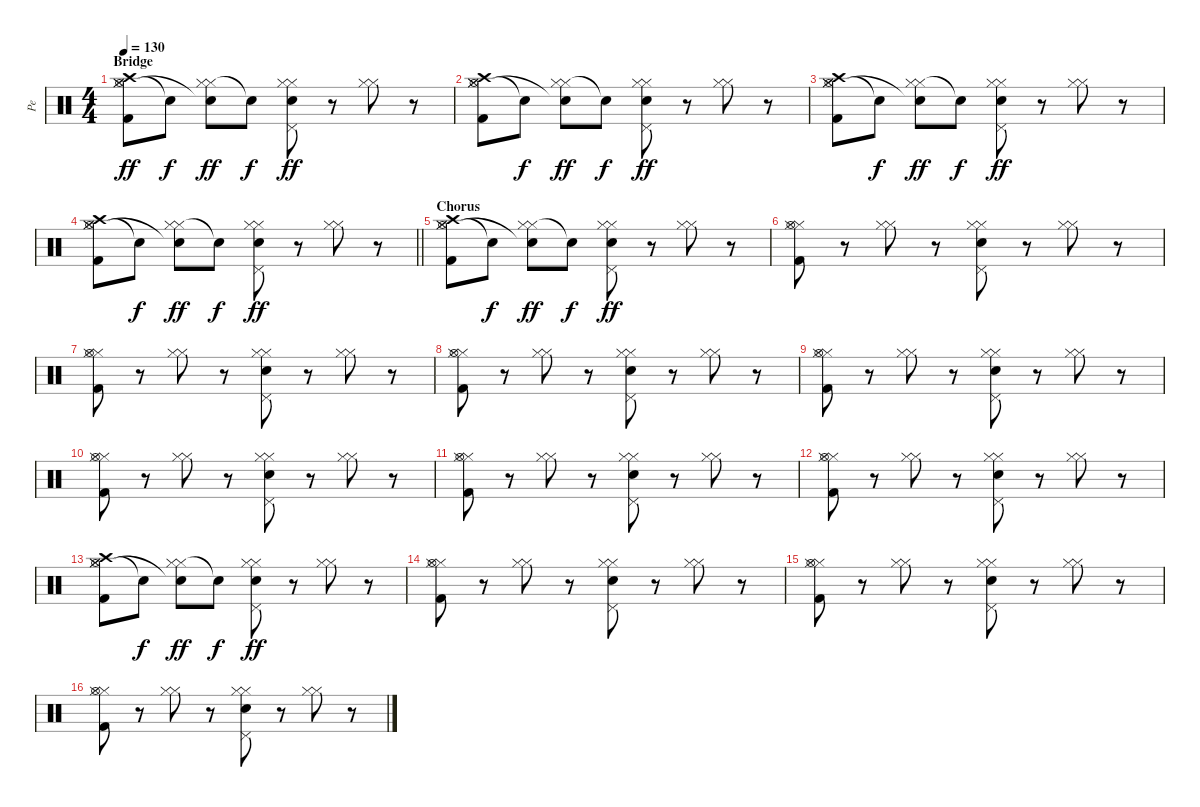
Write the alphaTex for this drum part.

\track ("Pe" "Pe") {instrument percussion}
\staff {score}
\articulation defaults
\ts (4 4)
\section ("" "Bridge")
\tempo 130
\clef neutral
\ks c
("Hi-Hat (closed)" "Hi-Hat (closed)" "Hi-Hat (open)" "Crash high (hit)" "Kick (hit) 2").8{dy ff} "Snare (hit)"{t}.8{dy f} ("Hi-Hat (closed)" "Hi-Hat (closed)" "Snare (hit)"{t}).8{dy ff} "Snare (hit)"{t}.8{dy f} ("Hi-Hat (closed)" "Hi-Hat (closed)" "Pedal Hi-Hat (hit)" "Electric Snare (hit)").8{dy ff} r.8 ("Hi-Hat (closed)" "Hi-Hat (closed)").8 r.8 |
("Hi-Hat (closed)" "Hi-Hat (closed)" "Hi-Hat (open)" "Crash high (hit)" "Kick (hit) 2").8 "Snare (hit)"{t}.8{dy f} ("Hi-Hat (closed)" "Hi-Hat (closed)" "Snare (hit)"{t}).8{dy ff} "Snare (hit)"{t}.8{dy f} ("Hi-Hat (closed)" "Hi-Hat (closed)" "Pedal Hi-Hat (hit)" "Electric Snare (hit)").8{dy ff} r.8 ("Hi-Hat (closed)" "Hi-Hat (closed)").8 r.8 |
("Hi-Hat (closed)" "Hi-Hat (closed)" "Hi-Hat (open)" "Crash high (hit)" "Kick (hit) 2").8 "Snare (hit)"{t}.8{dy f} ("Hi-Hat (closed)" "Hi-Hat (closed)" "Snare (hit)"{t}).8{dy ff} "Snare (hit)"{t}.8{dy f} ("Hi-Hat (closed)" "Hi-Hat (closed)" "Pedal Hi-Hat (hit)" "Electric Snare (hit)").8{dy ff} r.8 ("Hi-Hat (closed)" "Hi-Hat (closed)").8 r.8 |
\barLineRight lightlight
("Hi-Hat (closed)" "Hi-Hat (closed)" "Hi-Hat (open)" "Crash high (hit)" "Kick (hit) 2").8 "Snare (hit)"{t}.8{dy f} ("Hi-Hat (closed)" "Hi-Hat (closed)" "Snare (hit)"{t}).8{dy ff} "Snare (hit)"{t}.8{dy f} ("Hi-Hat (closed)" "Hi-Hat (closed)" "Pedal Hi-Hat (hit)" "Electric Snare (hit)").8{dy ff} r.8 ("Hi-Hat (closed)" "Hi-Hat (closed)").8 r.8 |
\section ("" "Chorus")
("Hi-Hat (closed)" "Hi-Hat (closed)" "Hi-Hat (open)" "Crash high (hit)" "Kick (hit) 2").8 "Snare (hit)"{t}.8{dy f} ("Hi-Hat (closed)" "Hi-Hat (closed)" "Snare (hit)"{t}).8{dy ff} "Snare (hit)"{t}.8{dy f} ("Hi-Hat (closed)" "Hi-Hat (closed)" "Pedal Hi-Hat (hit)" "Electric Snare (hit)").8{dy ff} r.8 ("Hi-Hat (closed)" "Hi-Hat (closed)").8 r.8 |
("Hi-Hat (closed)" "Hi-Hat (closed)" "Hi-Hat (open)" "Kick (hit) 2").8 r.8 ("Hi-Hat (closed)" "Hi-Hat (closed)").8 r.8 ("Hi-Hat (closed)" "Hi-Hat (closed)" "Pedal Hi-Hat (hit)" "Electric Snare (hit)").8 r.8 ("Hi-Hat (closed)" "Hi-Hat (closed)").8 r.8 |
("Hi-Hat (closed)" "Hi-Hat (closed)" "Hi-Hat (open)" "Kick (hit) 2").8 r.8 ("Hi-Hat (closed)" "Hi-Hat (closed)").8 r.8 ("Hi-Hat (closed)" "Hi-Hat (closed)" "Pedal Hi-Hat (hit)" "Electric Snare (hit)").8 r.8 ("Hi-Hat (closed)" "Hi-Hat (closed)").8 r.8 |
("Hi-Hat (closed)" "Hi-Hat (closed)" "Hi-Hat (open)" "Kick (hit) 2").8 r.8 ("Hi-Hat (closed)" "Hi-Hat (closed)").8 r.8 ("Hi-Hat (closed)" "Hi-Hat (closed)" "Pedal Hi-Hat (hit)" "Electric Snare (hit)").8 r.8 ("Hi-Hat (closed)" "Hi-Hat (closed)").8 r.8 |
("Hi-Hat (closed)" "Hi-Hat (closed)" "Hi-Hat (open)" "Kick (hit) 2").8 r.8 ("Hi-Hat (closed)" "Hi-Hat (closed)").8 r.8 ("Hi-Hat (closed)" "Hi-Hat (closed)" "Pedal Hi-Hat (hit)" "Electric Snare (hit)").8 r.8 ("Hi-Hat (closed)" "Hi-Hat (closed)").8 r.8 |
("Hi-Hat (closed)" "Hi-Hat (closed)" "Hi-Hat (open)" "Kick (hit) 2").8 r.8 ("Hi-Hat (closed)" "Hi-Hat (closed)").8 r.8 ("Hi-Hat (closed)" "Hi-Hat (closed)" "Pedal Hi-Hat (hit)" "Electric Snare (hit)").8 r.8 ("Hi-Hat (closed)" "Hi-Hat (closed)").8 r.8 |
("Hi-Hat (closed)" "Hi-Hat (closed)" "Hi-Hat (open)" "Kick (hit) 2").8 r.8 ("Hi-Hat (closed)" "Hi-Hat (closed)").8 r.8 ("Hi-Hat (closed)" "Hi-Hat (closed)" "Pedal Hi-Hat (hit)" "Electric Snare (hit)").8 r.8 ("Hi-Hat (closed)" "Hi-Hat (closed)").8 r.8 |
("Hi-Hat (closed)" "Hi-Hat (closed)" "Hi-Hat (open)" "Kick (hit) 2").8 r.8 ("Hi-Hat (closed)" "Hi-Hat (closed)").8 r.8 ("Hi-Hat (closed)" "Hi-Hat (closed)" "Pedal Hi-Hat (hit)" "Electric Snare (hit)").8 r.8 ("Hi-Hat (closed)" "Hi-Hat (closed)").8 r.8 |
("Hi-Hat (closed)" "Hi-Hat (closed)" "Hi-Hat (open)" "Crash high (hit)" "Kick (hit) 2").8 "Snare (hit)"{t}.8{dy f} ("Hi-Hat (closed)" "Hi-Hat (closed)" "Snare (hit)"{t}).8{dy ff} "Snare (hit)"{t}.8{dy f} ("Hi-Hat (closed)" "Hi-Hat (closed)" "Pedal Hi-Hat (hit)" "Electric Snare (hit)").8{dy ff} r.8 ("Hi-Hat (closed)" "Hi-Hat (closed)").8 r.8 |
("Hi-Hat (closed)" "Hi-Hat (closed)" "Hi-Hat (open)" "Kick (hit) 2").8 r.8 ("Hi-Hat (closed)" "Hi-Hat (closed)").8 r.8 ("Hi-Hat (closed)" "Hi-Hat (closed)" "Pedal Hi-Hat (hit)" "Electric Snare (hit)").8 r.8 ("Hi-Hat (closed)" "Hi-Hat (closed)").8 r.8 |
("Hi-Hat (closed)" "Hi-Hat (closed)" "Hi-Hat (open)" "Kick (hit) 2").8 r.8 ("Hi-Hat (closed)" "Hi-Hat (closed)").8 r.8 ("Hi-Hat (closed)" "Hi-Hat (closed)" "Pedal Hi-Hat (hit)" "Electric Snare (hit)").8 r.8 ("Hi-Hat (closed)" "Hi-Hat (closed)").8 r.8 |
("Hi-Hat (closed)" "Hi-Hat (closed)" "Hi-Hat (open)" "Kick (hit) 2").8 r.8 ("Hi-Hat (closed)" "Hi-Hat (closed)").8 r.8 ("Hi-Hat (closed)" "Hi-Hat (closed)" "Pedal Hi-Hat (hit)" "Electric Snare (hit)").8 r.8 ("Hi-Hat (closed)" "Hi-Hat (closed)").8 r.8
